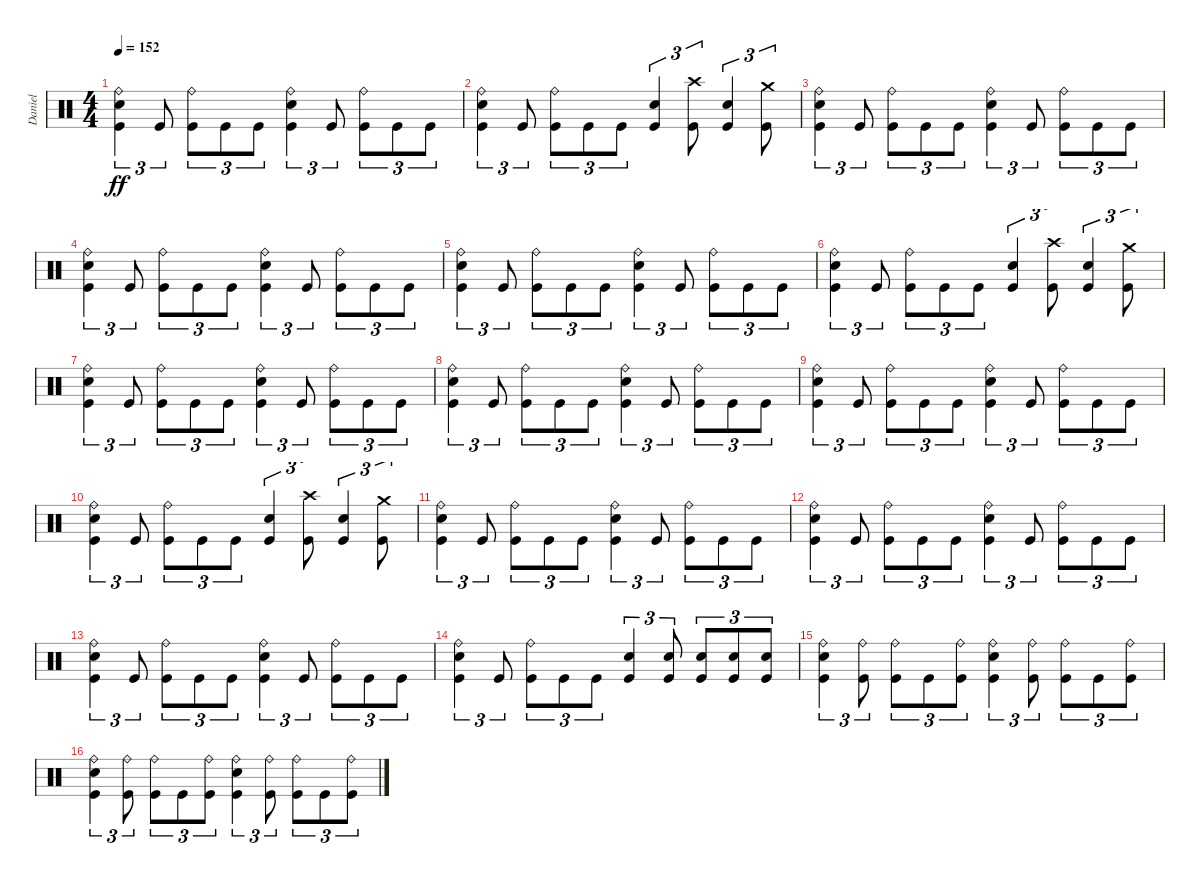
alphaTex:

\track ("Daniel" "Daniel") {instrument percussion}
\staff {score}
\articulation defaults
\ts (4 4)
\tempo 152
\clef neutral
\ks c
("Kick (hit)" "Snare (hit) 2" "Ride (bell)").4{tu (3 2) dy ff} "Kick (hit)".8{tu (3 2)} ("Kick (hit)" "Ride (bell)").8{tu (3 2)} "Kick (hit)".8{tu (3 2)} "Kick (hit)".8{tu (3 2)} ("Kick (hit)" "Snare (hit) 2" "Ride (bell)").4{tu (3 2)} "Kick (hit)".8{tu (3 2)} ("Kick (hit)" "Ride (bell)").8{tu (3 2)} "Kick (hit)".8{tu (3 2)} "Kick (hit)".8{tu (3 2)} |
("Kick (hit)" "Snare (hit) 2" "Ride (bell)").4{tu (3 2)} "Kick (hit)".8{tu (3 2)} ("Kick (hit)" "Ride (bell)").8{tu (3 2)} "Kick (hit)".8{tu (3 2)} "Kick (hit)".8{tu (3 2)} ("Kick (hit)" "Snare (hit) 2").4{tu (3 2)} ("Kick (hit)" "Crash high (hit)").8{tu (3 2)} ("Kick (hit)" "Snare (hit) 2").4{tu (3 2)} ("Kick (hit)" "Crash medium (hit)").8{tu (3 2)} |
("Kick (hit)" "Snare (hit) 2" "Ride (bell)").4{tu (3 2)} "Kick (hit)".8{tu (3 2)} ("Kick (hit)" "Ride (bell)").8{tu (3 2)} "Kick (hit)".8{tu (3 2)} "Kick (hit)".8{tu (3 2)} ("Kick (hit)" "Snare (hit) 2" "Ride (bell)").4{tu (3 2)} "Kick (hit)".8{tu (3 2)} ("Kick (hit)" "Ride (bell)").8{tu (3 2)} "Kick (hit)".8{tu (3 2)} "Kick (hit)".8{tu (3 2)} |
("Kick (hit)" "Snare (hit) 2" "Ride (bell)").4{tu (3 2)} "Kick (hit)".8{tu (3 2)} ("Kick (hit)" "Ride (bell)").8{tu (3 2)} "Kick (hit)".8{tu (3 2)} "Kick (hit)".8{tu (3 2)} ("Kick (hit)" "Snare (hit) 2" "Ride (bell)").4{tu (3 2)} "Kick (hit)".8{tu (3 2)} ("Kick (hit)" "Ride (bell)").8{tu (3 2)} "Kick (hit)".8{tu (3 2)} "Kick (hit)".8{tu (3 2)} |
("Kick (hit)" "Snare (hit) 2" "Ride (bell)").4{tu (3 2)} "Kick (hit)".8{tu (3 2)} ("Kick (hit)" "Ride (bell)").8{tu (3 2)} "Kick (hit)".8{tu (3 2)} "Kick (hit)".8{tu (3 2)} ("Kick (hit)" "Snare (hit) 2" "Ride (bell)").4{tu (3 2)} "Kick (hit)".8{tu (3 2)} ("Kick (hit)" "Ride (bell)").8{tu (3 2)} "Kick (hit)".8{tu (3 2)} "Kick (hit)".8{tu (3 2)} |
("Kick (hit)" "Snare (hit) 2" "Ride (bell)").4{tu (3 2)} "Kick (hit)".8{tu (3 2)} ("Kick (hit)" "Ride (bell)").8{tu (3 2)} "Kick (hit)".8{tu (3 2)} "Kick (hit)".8{tu (3 2)} ("Kick (hit)" "Snare (hit) 2").4{tu (3 2)} ("Kick (hit)" "Crash high (hit)").8{tu (3 2)} ("Kick (hit)" "Snare (hit) 2").4{tu (3 2)} ("Kick (hit)" "Crash medium (hit)").8{tu (3 2)} |
("Kick (hit)" "Snare (hit) 2" "Ride (bell)").4{tu (3 2)} "Kick (hit)".8{tu (3 2)} ("Kick (hit)" "Ride (bell)").8{tu (3 2)} "Kick (hit)".8{tu (3 2)} "Kick (hit)".8{tu (3 2)} ("Kick (hit)" "Snare (hit) 2" "Ride (bell)").4{tu (3 2)} "Kick (hit)".8{tu (3 2)} ("Kick (hit)" "Ride (bell)").8{tu (3 2)} "Kick (hit)".8{tu (3 2)} "Kick (hit)".8{tu (3 2)} |
("Kick (hit)" "Snare (hit) 2" "Ride (bell)").4{tu (3 2)} "Kick (hit)".8{tu (3 2)} ("Kick (hit)" "Ride (bell)").8{tu (3 2)} "Kick (hit)".8{tu (3 2)} "Kick (hit)".8{tu (3 2)} ("Kick (hit)" "Snare (hit) 2" "Ride (bell)").4{tu (3 2)} "Kick (hit)".8{tu (3 2)} ("Kick (hit)" "Ride (bell)").8{tu (3 2)} "Kick (hit)".8{tu (3 2)} "Kick (hit)".8{tu (3 2)} |
("Kick (hit)" "Snare (hit) 2" "Ride (bell)").4{tu (3 2)} "Kick (hit)".8{tu (3 2)} ("Kick (hit)" "Ride (bell)").8{tu (3 2)} "Kick (hit)".8{tu (3 2)} "Kick (hit)".8{tu (3 2)} ("Kick (hit)" "Snare (hit) 2" "Ride (bell)").4{tu (3 2)} "Kick (hit)".8{tu (3 2)} ("Kick (hit)" "Ride (bell)").8{tu (3 2)} "Kick (hit)".8{tu (3 2)} "Kick (hit)".8{tu (3 2)} |
("Kick (hit)" "Snare (hit) 2" "Ride (bell)").4{tu (3 2)} "Kick (hit)".8{tu (3 2)} ("Kick (hit)" "Ride (bell)").8{tu (3 2)} "Kick (hit)".8{tu (3 2)} "Kick (hit)".8{tu (3 2)} ("Kick (hit)" "Snare (hit) 2").4{tu (3 2)} ("Kick (hit)" "Crash high (hit)").8{tu (3 2)} ("Kick (hit)" "Snare (hit) 2").4{tu (3 2)} ("Kick (hit)" "Crash medium (hit)").8{tu (3 2)} |
("Kick (hit)" "Snare (hit) 2" "Ride (bell)").4{tu (3 2)} "Kick (hit)".8{tu (3 2)} ("Kick (hit)" "Ride (bell)").8{tu (3 2)} "Kick (hit)".8{tu (3 2)} "Kick (hit)".8{tu (3 2)} ("Kick (hit)" "Snare (hit) 2" "Ride (bell)").4{tu (3 2)} "Kick (hit)".8{tu (3 2)} ("Kick (hit)" "Ride (bell)").8{tu (3 2)} "Kick (hit)".8{tu (3 2)} "Kick (hit)".8{tu (3 2)} |
("Kick (hit)" "Snare (hit) 2" "Ride (bell)").4{tu (3 2)} "Kick (hit)".8{tu (3 2)} ("Kick (hit)" "Ride (bell)").8{tu (3 2)} "Kick (hit)".8{tu (3 2)} "Kick (hit)".8{tu (3 2)} ("Kick (hit)" "Snare (hit) 2" "Ride (bell)").4{tu (3 2)} "Kick (hit)".8{tu (3 2)} ("Kick (hit)" "Ride (bell)").8{tu (3 2)} "Kick (hit)".8{tu (3 2)} "Kick (hit)".8{tu (3 2)} |
("Kick (hit)" "Snare (hit) 2" "Ride (bell)").4{tu (3 2)} "Kick (hit)".8{tu (3 2)} ("Kick (hit)" "Ride (bell)").8{tu (3 2)} "Kick (hit)".8{tu (3 2)} "Kick (hit)".8{tu (3 2)} ("Kick (hit)" "Snare (hit) 2" "Ride (bell)").4{tu (3 2)} "Kick (hit)".8{tu (3 2)} ("Kick (hit)" "Ride (bell)").8{tu (3 2)} "Kick (hit)".8{tu (3 2)} "Kick (hit)".8{tu (3 2)} |
("Kick (hit)" "Snare (hit) 2" "Ride (bell)").4{tu (3 2)} "Kick (hit)".8{tu (3 2)} ("Kick (hit)" "Ride (bell)").8{tu (3 2)} "Kick (hit)".8{tu (3 2)} "Kick (hit)".8{tu (3 2)} ("Kick (hit)" "Snare (hit) 2").4{tu (3 2)} ("Kick (hit)" "Snare (hit) 2").8{tu (3 2)} ("Kick (hit)" "Snare (hit) 2").8{tu (3 2)} ("Kick (hit)" "Snare (hit) 2").8{tu (3 2)} ("Kick (hit)" "Snare (hit) 2").8{tu (3 2)} |
("Kick (hit)" "Snare (hit) 2" "Ride (bell)").4{tu (3 2)} ("Kick (hit)" "Ride (bell)").8{tu (3 2)} ("Kick (hit)" "Ride (bell)").8{tu (3 2)} "Kick (hit)".8{tu (3 2)} ("Kick (hit)" "Ride (bell)").8{tu (3 2)} ("Kick (hit)" "Snare (hit) 2" "Ride (bell)").4{tu (3 2)} ("Kick (hit)" "Ride (bell)").8{tu (3 2)} ("Kick (hit)" "Ride (bell)").8{tu (3 2)} "Kick (hit)".8{tu (3 2)} ("Kick (hit)" "Ride (bell)").8{tu (3 2)} |
("Kick (hit)" "Snare (hit) 2" "Ride (bell)").4{tu (3 2)} ("Kick (hit)" "Ride (bell)").8{tu (3 2)} ("Kick (hit)" "Ride (bell)").8{tu (3 2)} "Kick (hit)".8{tu (3 2)} ("Kick (hit)" "Ride (bell)").8{tu (3 2)} ("Kick (hit)" "Snare (hit) 2" "Ride (bell)").4{tu (3 2)} ("Kick (hit)" "Ride (bell)").8{tu (3 2)} ("Kick (hit)" "Ride (bell)").8{tu (3 2)} "Kick (hit)".8{tu (3 2)} ("Kick (hit)" "Ride (bell)").8{tu (3 2)}
